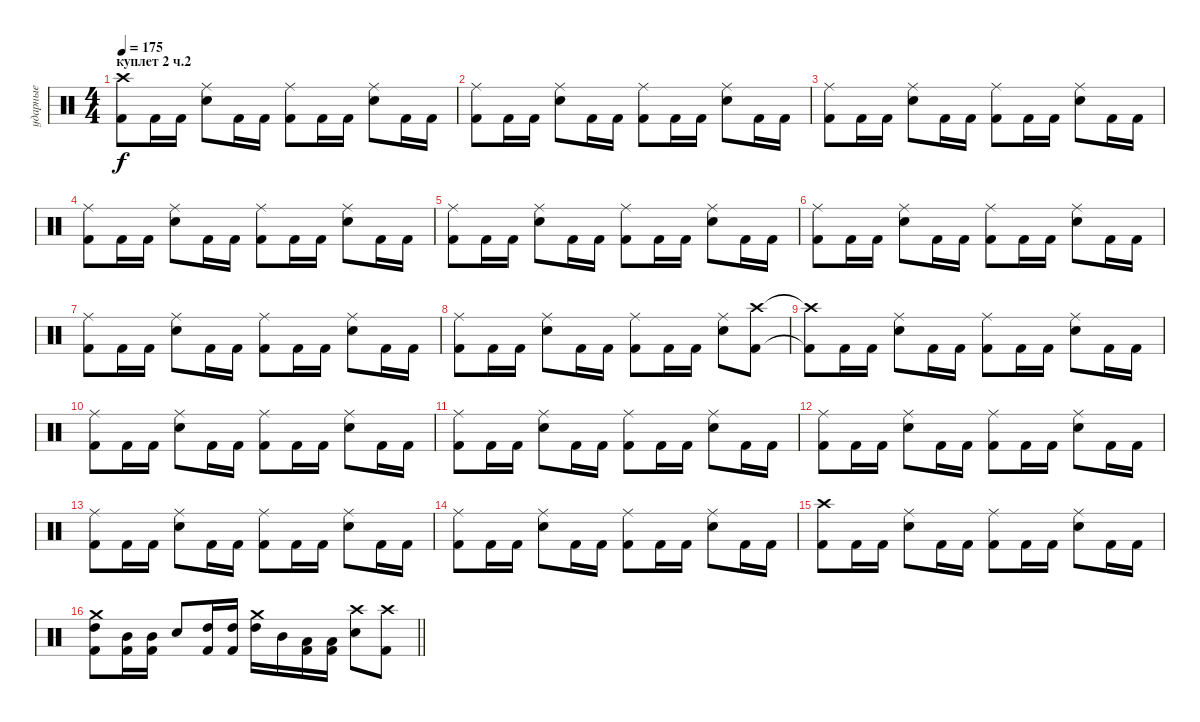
\track ("ударные" "ударные") {instrument percussion}
\staff {score}
\articulation defaults
\ts (4 4)
\section ("" "куплет 2 ч.2")
\tempo 175
\clef neutral
\ks c
("Kick (hit) 2"{t} "Crash high (hit)"{t}).8{dy f} "Kick (hit) 2".16 "Kick (hit) 2".16 ("Snare (hit) 2" "Ride (middle)").8 "Kick (hit) 2".16 "Kick (hit) 2".16 ("Kick (hit) 2" "Ride (middle)").8 "Kick (hit) 2".16 "Kick (hit) 2".16 ("Snare (hit) 2" "Ride (middle)").8 "Kick (hit) 2".16 "Kick (hit) 2".16 |
("Kick (hit) 2" "Ride (middle)").8 "Kick (hit) 2".16 "Kick (hit) 2".16 ("Snare (hit) 2" "Ride (middle)").8 "Kick (hit) 2".16 "Kick (hit) 2".16 ("Kick (hit) 2" "Ride (middle)").8 "Kick (hit) 2".16 "Kick (hit) 2".16 ("Snare (hit) 2" "Ride (middle)").8 "Kick (hit) 2".16 "Kick (hit) 2".16 |
("Kick (hit) 2" "Ride (middle)").8 "Kick (hit) 2".16 "Kick (hit) 2".16 ("Snare (hit) 2" "Ride (middle)").8 "Kick (hit) 2".16 "Kick (hit) 2".16 ("Kick (hit) 2" "Ride (middle)").8 "Kick (hit) 2".16 "Kick (hit) 2".16 ("Snare (hit) 2" "Ride (middle)").8 "Kick (hit) 2".16 "Kick (hit) 2".16 |
("Kick (hit) 2" "Ride (middle)").8 "Kick (hit) 2".16 "Kick (hit) 2".16 ("Snare (hit) 2" "Ride (middle)").8 "Kick (hit) 2".16 "Kick (hit) 2".16 ("Kick (hit) 2" "Ride (middle)").8 "Kick (hit) 2".16 "Kick (hit) 2".16 ("Snare (hit) 2" "Ride (middle)").8 "Kick (hit) 2".16 "Kick (hit) 2".16 |
("Kick (hit) 2" "Ride (middle)").8 "Kick (hit) 2".16 "Kick (hit) 2".16 ("Snare (hit) 2" "Ride (middle)").8 "Kick (hit) 2".16 "Kick (hit) 2".16 ("Kick (hit) 2" "Ride (middle)").8 "Kick (hit) 2".16 "Kick (hit) 2".16 ("Snare (hit) 2" "Ride (middle)").8 "Kick (hit) 2".16 "Kick (hit) 2".16 |
("Kick (hit) 2" "Ride (middle)").8 "Kick (hit) 2".16 "Kick (hit) 2".16 ("Snare (hit) 2" "Ride (middle)").8 "Kick (hit) 2".16 "Kick (hit) 2".16 ("Kick (hit) 2" "Ride (middle)").8 "Kick (hit) 2".16 "Kick (hit) 2".16 ("Snare (hit) 2" "Ride (middle)").8 "Kick (hit) 2".16 "Kick (hit) 2".16 |
("Kick (hit) 2" "Ride (middle)").8 "Kick (hit) 2".16 "Kick (hit) 2".16 ("Snare (hit) 2" "Ride (middle)").8 "Kick (hit) 2".16 "Kick (hit) 2".16 ("Kick (hit) 2" "Ride (middle)").8 "Kick (hit) 2".16 "Kick (hit) 2".16 ("Snare (hit) 2" "Ride (middle)").8 "Kick (hit) 2".16 "Kick (hit) 2".16 |
("Kick (hit) 2" "Ride (middle)").8 "Kick (hit) 2".16 "Kick (hit) 2".16 ("Snare (hit) 2" "Ride (middle)").8 "Kick (hit) 2".16 "Kick (hit) 2".16 ("Kick (hit) 2" "Ride (middle)").8 "Kick (hit) 2".16 "Kick (hit) 2".16 ("Snare (hit) 2" "Ride (middle)").8 ("Kick (hit) 2" "Crash high (hit)").8 |
("Kick (hit) 2"{t} "Crash high (hit)"{t}).8 "Kick (hit) 2".16 "Kick (hit) 2".16 ("Snare (hit) 2" "Ride (middle)").8 "Kick (hit) 2".16 "Kick (hit) 2".16 ("Kick (hit) 2" "Ride (middle)").8 "Kick (hit) 2".16 "Kick (hit) 2".16 ("Snare (hit) 2" "Ride (middle)").8 "Kick (hit) 2".16 "Kick (hit) 2".16 |
("Kick (hit) 2" "Ride (middle)").8 "Kick (hit) 2".16 "Kick (hit) 2".16 ("Snare (hit) 2" "Ride (middle)").8 "Kick (hit) 2".16 "Kick (hit) 2".16 ("Kick (hit) 2" "Ride (middle)").8 "Kick (hit) 2".16 "Kick (hit) 2".16 ("Snare (hit) 2" "Ride (middle)").8 "Kick (hit) 2".16 "Kick (hit) 2".16 |
("Kick (hit) 2" "Ride (middle)").8 "Kick (hit) 2".16 "Kick (hit) 2".16 ("Snare (hit) 2" "Ride (middle)").8 "Kick (hit) 2".16 "Kick (hit) 2".16 ("Kick (hit) 2" "Ride (middle)").8 "Kick (hit) 2".16 "Kick (hit) 2".16 ("Snare (hit) 2" "Ride (middle)").8 "Kick (hit) 2".16 "Kick (hit) 2".16 |
("Kick (hit) 2" "Ride (middle)").8 "Kick (hit) 2".16 "Kick (hit) 2".16 ("Snare (hit) 2" "Ride (middle)").8 "Kick (hit) 2".16 "Kick (hit) 2".16 ("Kick (hit) 2" "Ride (middle)").8 "Kick (hit) 2".16 "Kick (hit) 2".16 ("Snare (hit) 2" "Ride (middle)").8 "Kick (hit) 2".16 "Kick (hit) 2".16 |
("Kick (hit) 2" "Ride (middle)").8 "Kick (hit) 2".16 "Kick (hit) 2".16 ("Snare (hit) 2" "Ride (middle)").8 "Kick (hit) 2".16 "Kick (hit) 2".16 ("Kick (hit) 2" "Ride (middle)").8 "Kick (hit) 2".16 "Kick (hit) 2".16 ("Snare (hit) 2" "Ride (middle)").8 "Kick (hit) 2".16 "Kick (hit) 2".16 |
("Kick (hit) 2" "Ride (middle)").8 "Kick (hit) 2".16 "Kick (hit) 2".16 ("Snare (hit) 2" "Ride (middle)").8 "Kick (hit) 2".16 "Kick (hit) 2".16 ("Kick (hit) 2" "Ride (middle)").8 "Kick (hit) 2".16 "Kick (hit) 2".16 ("Snare (hit) 2" "Ride (middle)").8 "Kick (hit) 2".16 "Kick (hit) 2".16 |
("Kick (hit) 2" "Crash high (hit)").8 "Kick (hit) 2".16 "Kick (hit) 2".16 ("Snare (hit) 2" "Ride (middle)").8 "Kick (hit) 2".16 "Kick (hit) 2".16 ("Kick (hit) 2" "Ride (middle)").8 "Kick (hit) 2".16 "Kick (hit) 2".16 ("Snare (hit) 2" "Ride (middle)").8 "Kick (hit) 2".16 "Kick (hit) 2".16 |
\barLineRight lightlight
("Kick (hit) 2" "High Tom (hit)" "Crash medium (hit)").8 ("Kick (hit) 2" "Mid Tom (hit)").16 ("Kick (hit) 2" "Mid Tom (hit)").16 "Snare (hit) 2".8 ("Kick (hit) 2" "High Tom (hit)").16 ("Kick (hit) 2" "High Tom (hit)").16 ("High Tom (hit)" "Crash medium (hit)").16 "Mid Tom (hit)".16 ("Kick (hit) 2" "Low Tom (hit)").16 ("Kick (hit) 2" "Low Tom (hit)").16 ("Snare (hit) 2" "Crash high (hit)").8 ("Kick (hit) 2" "Crash high (hit)").8
